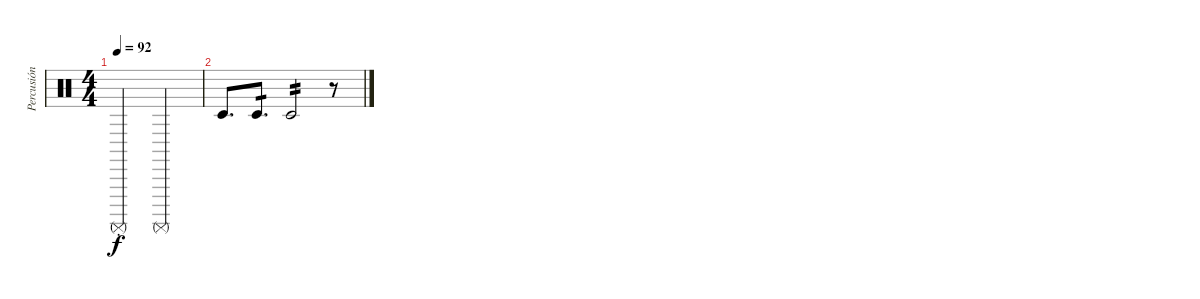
\track ("Percusión" "Percusión") {instrument percussion}
\staff {score}
\articulation defaults
\ts (4 4)
\tempo 92
\clef neutral
\ks c "Surdo (mute)"{st}.2{dy f volume 4} "Surdo (mute)".2{volume 15}
|
"Timbale low (hit)".8{d volume 1} "Timbale low (hit)".8{d tp 1} "Timbale low (hit)".2{tp 2} r.8
